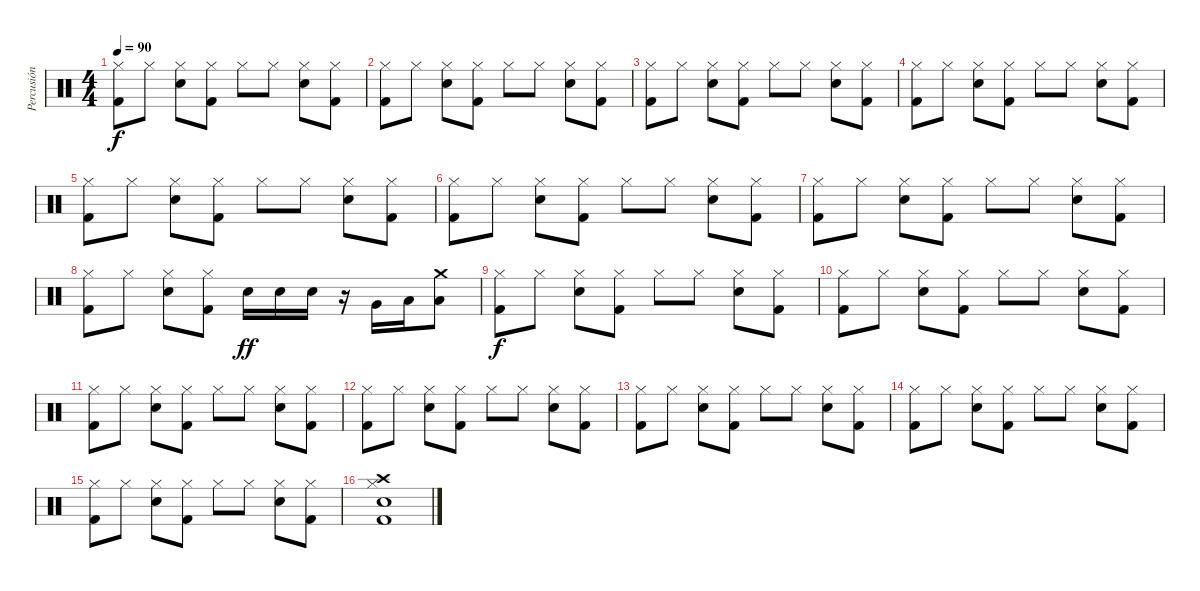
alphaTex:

\track ("Percusión" "Percusión") {instrument percussion}
\staff {score}
\articulation defaults
\ts (4 4)
\tempo 90
\clef neutral
\ks c
("Hi-Hat (closed)" "Kick (hit) 2").8{dy f} "Hi-Hat (closed)".8 ("Hi-Hat (closed)" "Snare (hit) 2").8 ("Hi-Hat (closed)" "Kick (hit) 2").8 "Hi-Hat (closed)".8 "Hi-Hat (closed)".8 ("Hi-Hat (closed)" "Snare (hit) 2").8 ("Hi-Hat (closed)" "Kick (hit) 2").8 |
("Hi-Hat (closed)" "Kick (hit) 2").8 "Hi-Hat (closed)".8 ("Hi-Hat (closed)" "Snare (hit) 2").8 ("Hi-Hat (closed)" "Kick (hit) 2").8 "Hi-Hat (closed)".8 "Hi-Hat (closed)".8 ("Hi-Hat (closed)" "Snare (hit) 2").8 ("Hi-Hat (closed)" "Kick (hit) 2").8 |
("Hi-Hat (closed)" "Kick (hit) 2").8 "Hi-Hat (closed)".8 ("Hi-Hat (closed)" "Snare (hit) 2").8 ("Hi-Hat (closed)" "Kick (hit) 2").8 "Hi-Hat (closed)".8 "Hi-Hat (closed)".8 ("Hi-Hat (closed)" "Snare (hit) 2").8 ("Hi-Hat (closed)" "Kick (hit) 2").8 |
("Hi-Hat (closed)" "Kick (hit) 2").8 "Hi-Hat (closed)".8 ("Hi-Hat (closed)" "Snare (hit) 2").8 ("Hi-Hat (closed)" "Kick (hit) 2").8 "Hi-Hat (closed)".8 "Hi-Hat (closed)".8 ("Hi-Hat (closed)" "Snare (hit) 2").8 ("Hi-Hat (closed)" "Kick (hit) 2").8 |
("Hi-Hat (closed)" "Kick (hit) 2").8 "Hi-Hat (closed)".8 ("Hi-Hat (closed)" "Snare (hit) 2").8 ("Hi-Hat (closed)" "Kick (hit) 2").8 "Hi-Hat (closed)".8 "Hi-Hat (closed)".8 ("Hi-Hat (closed)" "Snare (hit) 2").8 ("Hi-Hat (closed)" "Kick (hit) 2").8 |
("Hi-Hat (closed)" "Kick (hit) 2").8 "Hi-Hat (closed)".8 ("Hi-Hat (closed)" "Snare (hit) 2").8 ("Hi-Hat (closed)" "Kick (hit) 2").8 "Hi-Hat (closed)".8 "Hi-Hat (closed)".8 ("Hi-Hat (closed)" "Snare (hit) 2").8 ("Hi-Hat (closed)" "Kick (hit) 2").8 |
("Hi-Hat (closed)" "Kick (hit) 2").8 "Hi-Hat (closed)".8 ("Hi-Hat (closed)" "Snare (hit) 2").8 ("Hi-Hat (closed)" "Kick (hit) 2").8 "Hi-Hat (closed)".8 "Hi-Hat (closed)".8 ("Hi-Hat (closed)" "Snare (hit) 2").8 ("Hi-Hat (closed)" "Kick (hit) 2").8 |
("Hi-Hat (closed)" "Kick (hit) 2").8 "Hi-Hat (closed)".8 ("Hi-Hat (closed)" "Snare (hit) 2").8 ("Hi-Hat (closed)" "Kick (hit) 2").8 "Snare (hit) 2".16{dy ff} "Snare (hit) 2".16 "Snare (hit) 2".16 r.16 "Very Low Tom (hit)".16 "Low Floor Tom (hit)".16 ("Low Floor Tom (hit)" "Crash medium (hit)").8 |
("Hi-Hat (closed)" "Kick (hit) 2").8{dy f} "Hi-Hat (closed)".8 ("Hi-Hat (closed)" "Snare (hit) 2").8 ("Hi-Hat (closed)" "Kick (hit) 2").8 "Hi-Hat (closed)".8 "Hi-Hat (closed)".8 ("Hi-Hat (closed)" "Snare (hit) 2").8 ("Hi-Hat (closed)" "Kick (hit) 2").8 |
("Hi-Hat (closed)" "Kick (hit) 2").8 "Hi-Hat (closed)".8 ("Hi-Hat (closed)" "Snare (hit) 2").8 ("Hi-Hat (closed)" "Kick (hit) 2").8 "Hi-Hat (closed)".8 "Hi-Hat (closed)".8 ("Hi-Hat (closed)" "Snare (hit) 2").8 ("Hi-Hat (closed)" "Kick (hit) 2").8 |
("Hi-Hat (closed)" "Kick (hit) 2").8 "Hi-Hat (closed)".8 ("Hi-Hat (closed)" "Snare (hit) 2").8 ("Hi-Hat (closed)" "Kick (hit) 2").8 "Hi-Hat (closed)".8 "Hi-Hat (closed)".8 ("Hi-Hat (closed)" "Snare (hit) 2").8 ("Hi-Hat (closed)" "Kick (hit) 2").8 |
("Hi-Hat (closed)" "Kick (hit) 2").8 "Hi-Hat (closed)".8 ("Hi-Hat (closed)" "Snare (hit) 2").8 ("Hi-Hat (closed)" "Kick (hit) 2").8 "Hi-Hat (closed)".8 "Hi-Hat (closed)".8 ("Hi-Hat (closed)" "Snare (hit) 2").8 ("Hi-Hat (closed)" "Kick (hit) 2").8 |
("Hi-Hat (closed)" "Kick (hit) 2").8 "Hi-Hat (closed)".8 ("Hi-Hat (closed)" "Snare (hit) 2").8 ("Hi-Hat (closed)" "Kick (hit) 2").8 "Hi-Hat (closed)".8 "Hi-Hat (closed)".8 ("Hi-Hat (closed)" "Snare (hit) 2").8 ("Hi-Hat (closed)" "Kick (hit) 2").8 |
("Hi-Hat (closed)" "Kick (hit) 2").8 "Hi-Hat (closed)".8 ("Hi-Hat (closed)" "Snare (hit) 2").8 ("Hi-Hat (closed)" "Kick (hit) 2").8 "Hi-Hat (closed)".8 "Hi-Hat (closed)".8 ("Hi-Hat (closed)" "Snare (hit) 2").8 ("Hi-Hat (closed)" "Kick (hit) 2").8 |
("Hi-Hat (closed)" "Kick (hit) 2").8 "Hi-Hat (closed)".8 ("Hi-Hat (closed)" "Snare (hit) 2").8 ("Hi-Hat (closed)" "Kick (hit) 2").8 "Hi-Hat (closed)".8 "Hi-Hat (closed)".8 ("Hi-Hat (closed)" "Snare (hit) 2").8 ("Hi-Hat (closed)" "Kick (hit) 2").8 |
("Crash high (hit)" "Hi-Hat (closed)" "Snare (hit) 2" "Kick (hit) 2").1
